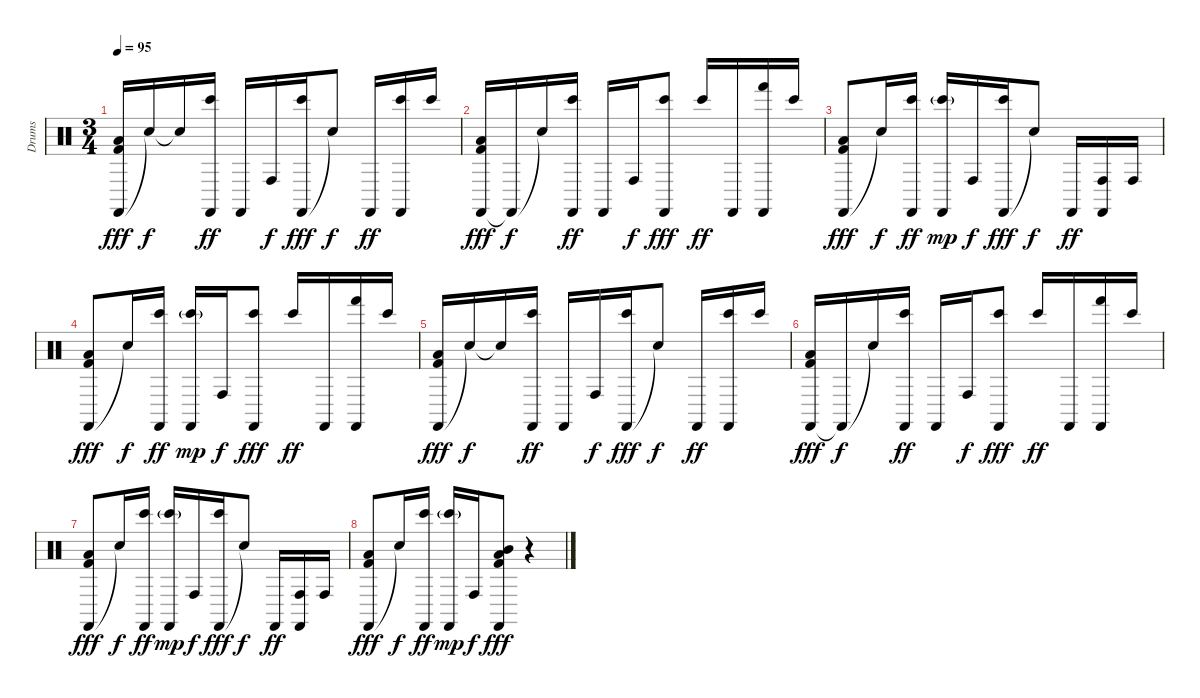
\track ("Drums" "Drums") {instrument percussion}
\staff {score}
\articulation defaults
\ts (3 4)
\tempo 95
\clef neutral
\ks c
("Castanets (hit)" "Low Floor Tom (hit)" "Kick (hit) 2").16{dy fff} "Snare (hit)"{t}.16{dy f} "Snare (hit)"{t}.16 ("Castanets (hit)" "Bongo High (hit)").16{dy ff} "Castanets (hit)".16 "Conga high (hit)".16{dy f} ("Castanets (hit)" "Bongo High (hit)").16{dy fff} "Snare (hit)"{t}.8{dy f} "Castanets (hit)".16{dy ff} ("Castanets (hit)" "Bongo High (hit)").16 "Bongo High (hit)".16 |
("Castanets (hit)" "Low Floor Tom (hit)" "Kick (hit) 2").16{dy fff} "Castanets (hit)"{t}.16{dy f} "Snare (hit)"{t}.16 ("Castanets (hit)" "Bongo High (hit)").16{dy ff} "Castanets (hit)".16 "Conga high (hit)".16{dy f} ("Castanets (hit)" "Bongo High (hit)").8{dy fff} "Bongo High (hit)".16{dy ff} "Castanets (hit)".16 ("Castanets (hit)" "Hand (hit)").16 "Bongo High (hit)".16 |
("Castanets (hit)" "Low Floor Tom (hit)" "Kick (hit) 2").8{dy fff} "Snare (hit)"{t}.16{dy f} ("Castanets (hit)" "Bongo High (hit)").16{dy ff} ("Castanets (hit)" "Bongo High (hit)"{g}).16{dy mp} "Conga high (hit)".16{dy f} ("Castanets (hit)" "Bongo High (hit)").16{dy fff} "Snare (hit)"{t}.8{dy f} "Castanets (hit)".16{dy ff} ("Castanets (hit)" "Conga high (hit)").16 "Conga high (hit)".16 |
("Castanets (hit)" "Low Floor Tom (hit)" "Kick (hit) 2").8{dy fff} "Snare (hit)"{t}.16{dy f} ("Castanets (hit)" "Bongo High (hit)").16{dy ff} ("Castanets (hit)" "Bongo High (hit)"{g}).16{dy mp} "Conga high (hit)".16{dy f} ("Castanets (hit)" "Bongo High (hit)").8{dy fff} "Bongo High (hit)".16{dy ff} "Castanets (hit)".16 ("Castanets (hit)" "Hand (hit)").16 "Bongo High (hit)".16 |
("Castanets (hit)" "Low Floor Tom (hit)" "Kick (hit) 2").16{dy fff} "Snare (hit)"{t}.16{dy f} "Snare (hit)"{t}.16 ("Castanets (hit)" "Bongo High (hit)").16{dy ff} "Castanets (hit)".16 "Conga high (hit)".16{dy f} ("Castanets (hit)" "Bongo High (hit)").16{dy fff} "Snare (hit)"{t}.8{dy f} "Castanets (hit)".16{dy ff} ("Castanets (hit)" "Bongo High (hit)").16 "Bongo High (hit)".16 |
("Castanets (hit)" "Low Floor Tom (hit)" "Kick (hit) 2").16{dy fff} "Castanets (hit)"{t}.16{dy f} "Snare (hit)"{t}.16 ("Castanets (hit)" "Bongo High (hit)").16{dy ff} "Castanets (hit)".16 "Conga high (hit)".16{dy f} ("Castanets (hit)" "Bongo High (hit)").8{dy fff} "Bongo High (hit)".16{dy ff} "Castanets (hit)".16 ("Castanets (hit)" "Hand (hit)").16 "Bongo High (hit)".16 |
("Castanets (hit)" "Low Floor Tom (hit)" "Kick (hit) 2").8{dy fff} "Snare (hit)"{t}.16{dy f} ("Castanets (hit)" "Bongo High (hit)").16{dy ff} ("Castanets (hit)" "Bongo High (hit)"{g}).16{dy mp} "Conga high (hit)".16{dy f} ("Castanets (hit)" "Bongo High (hit)").16{dy fff} "Snare (hit)"{t}.8{dy f} "Castanets (hit)".16{dy ff} ("Castanets (hit)" "Conga high (hit)").16 "Conga high (hit)".16 |
("Castanets (hit)" "Low Floor Tom (hit)" "Kick (hit) 2").8{dy fff} "Snare (hit)"{t}.16{dy f} ("Castanets (hit)" "Bongo High (hit)").16{dy ff} ("Castanets (hit)" "Bongo High (hit)"{g}).16{dy mp} "Conga high (hit)".16{dy f} ("Castanets (hit)" "Low Tom (hit)" "Mid Tom (hit)" "Kick (hit) 2").8{dy fff} r.4
